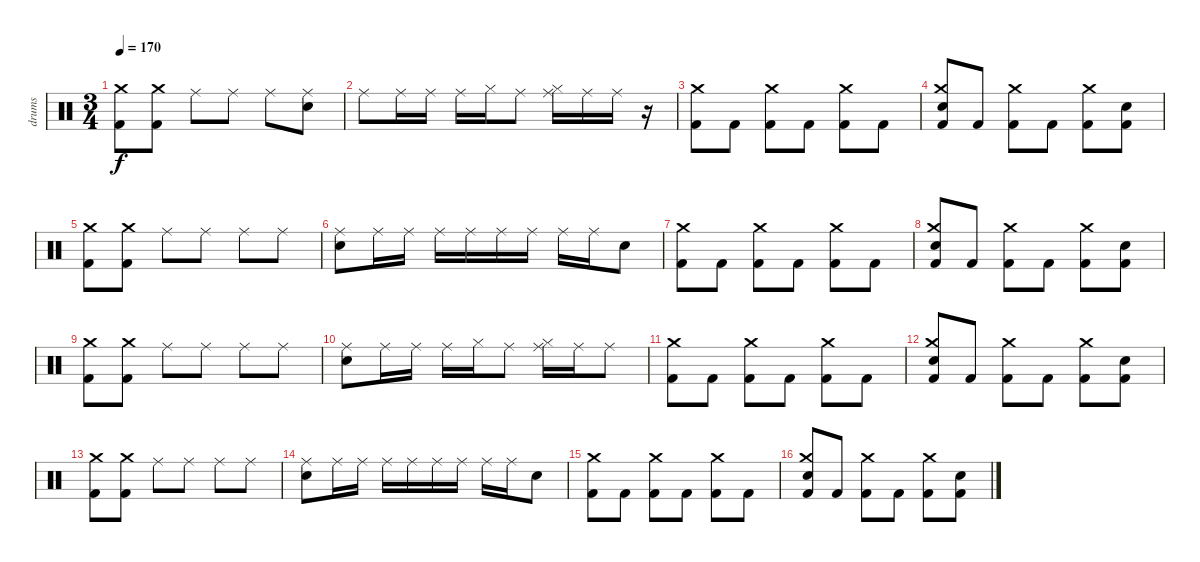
\track ("drums" "drums") {instrument percussion}
\staff {score}
\articulation defaults
\ts (3 4)
\tempo 170
\clef neutral
\ks c
("Kick (hit) 2" "Crash medium (hit)").8{dy f} ("Kick (hit) 2" "Crash medium (hit)").8 "Ride (middle)".8 "Ride (middle)".8 "Ride (middle)".8 ("Snare (hit) 2" "Ride (middle)").8 |
"Ride (middle)".8 "Ride (middle)".16 "Ride (middle)".16 "Ride (middle)".16 "Hi-Hat (closed)".16 "Ride (middle)".8 ("Ride (middle)" "Hi-Hat (closed)").16 "Ride (middle)".16 "Ride (middle)".16 r.16 |
("Kick (hit) 2" "Crash medium (hit)").8 "Kick (hit) 2".8 ("Kick (hit) 2" "Crash medium (hit)").8 "Kick (hit) 2".8 ("Kick (hit) 2" "Crash medium (hit)").8 "Kick (hit) 2".8 |
("Kick (hit) 2" "Snare (hit) 2" "Crash medium (hit)").8 "Kick (hit) 2".8 ("Kick (hit) 2" "Crash medium (hit)").8 "Kick (hit) 2".8 ("Kick (hit) 2" "Crash medium (hit)").8 ("Kick (hit) 2" "Snare (hit) 2").8 |
("Kick (hit) 2" "Crash medium (hit)").8 ("Kick (hit) 2" "Crash medium (hit)").8 "Ride (middle)".8 "Ride (middle)".8 "Ride (middle)".8 "Ride (middle)".8 |
("Snare (hit) 2" "Ride (middle)").8 "Ride (middle)".16 "Ride (middle)".16 "Ride (middle)".16 "Ride (middle)".16 "Ride (middle)".16 "Ride (middle)".16 "Ride (middle)".16 "Ride (middle)".16 "Snare (hit) 2".8 |
("Kick (hit) 2" "Crash medium (hit)").8 "Kick (hit) 2".8 ("Kick (hit) 2" "Crash medium (hit)").8 "Kick (hit) 2".8 ("Kick (hit) 2" "Crash medium (hit)").8 "Kick (hit) 2".8 |
("Kick (hit) 2" "Snare (hit) 2" "Crash medium (hit)").8 "Kick (hit) 2".8 ("Kick (hit) 2" "Crash medium (hit)").8 "Kick (hit) 2".8 ("Kick (hit) 2" "Crash medium (hit)").8 ("Kick (hit) 2" "Snare (hit) 2").8 |
("Kick (hit) 2" "Crash medium (hit)").8 ("Kick (hit) 2" "Crash medium (hit)").8 "Ride (middle)".8 "Ride (middle)".8 "Ride (middle)".8 "Ride (middle)".8 |
("Snare (hit) 2" "Ride (middle)").8 "Ride (middle)".16 "Ride (middle)".16 "Ride (middle)".16 "Hi-Hat (closed)".16 "Ride (middle)".8 ("Ride (middle)" "Hi-Hat (closed)").16 "Ride (middle)".16 "Ride (middle)".8 |
("Kick (hit) 2" "Crash medium (hit)").8 "Kick (hit) 2".8 ("Kick (hit) 2" "Crash medium (hit)").8 "Kick (hit) 2".8 ("Kick (hit) 2" "Crash medium (hit)").8 "Kick (hit) 2".8 |
("Kick (hit) 2" "Snare (hit) 2" "Crash medium (hit)").8 "Kick (hit) 2".8 ("Kick (hit) 2" "Crash medium (hit)").8 "Kick (hit) 2".8 ("Kick (hit) 2" "Crash medium (hit)").8 ("Kick (hit) 2" "Snare (hit) 2").8 |
("Kick (hit) 2" "Crash medium (hit)").8 ("Kick (hit) 2" "Crash medium (hit)").8 "Ride (middle)".8 "Ride (middle)".8 "Ride (middle)".8 "Ride (middle)".8 |
("Snare (hit) 2" "Ride (middle)").8 "Ride (middle)".16 "Ride (middle)".16 "Ride (middle)".16 "Ride (middle)".16 "Ride (middle)".16 "Ride (middle)".16 "Ride (middle)".16 "Ride (middle)".16 "Snare (hit) 2".8 |
("Kick (hit) 2" "Crash medium (hit)").8 "Kick (hit) 2".8 ("Kick (hit) 2" "Crash medium (hit)").8 "Kick (hit) 2".8 ("Kick (hit) 2" "Crash medium (hit)").8 "Kick (hit) 2".8 |
("Kick (hit) 2" "Snare (hit) 2" "Crash medium (hit)").8 "Kick (hit) 2".8 ("Kick (hit) 2" "Crash medium (hit)").8 "Kick (hit) 2".8 ("Kick (hit) 2" "Crash medium (hit)").8 ("Kick (hit) 2" "Snare (hit) 2").8
